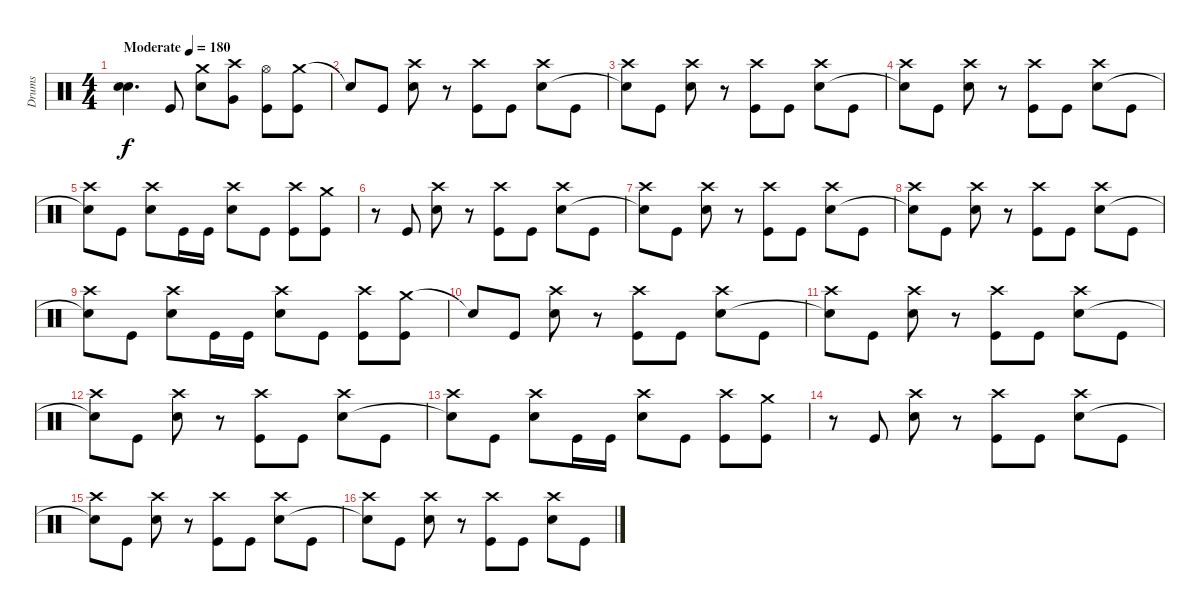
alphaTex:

\track ("Drums" "Drums") {instrument percussion}
\staff {score}
\articulation defaults
\ts (4 4)
\tempo (180 "Moderate")
\clef neutral
\ks c
("Snare (hit) 2" "Electric Snare (hit)").4{d dy f} "Kick (hit)".8 ("Crash medium (hit)" "Electric Snare (hit)").8 ("Crash high (hit)" "Very Low Tom (hit)").8 ("Hi-Hat (open)" "Kick (hit)").8 ("Crash medium (hit)" "Kick (hit)").8 |
"Snare (hit)"{t}.8 "Kick (hit)".8 ("Crash high (hit)" "Electric Snare (hit)").8 r.8 ("Crash high (hit)" "Kick (hit)").8 "Kick (hit)".8 ("Crash high (hit)" "Electric Snare (hit)").8 "Kick (hit)".8 |
("Crash high (hit)" "Snare (hit)"{t}).8 "Kick (hit)".8 ("Crash high (hit)" "Electric Snare (hit)").8 r.8 ("Crash high (hit)" "Kick (hit)").8 "Kick (hit)".8 ("Crash high (hit)" "Electric Snare (hit)").8 "Kick (hit)".8 |
("Crash high (hit)" "Snare (hit)"{t}).8 "Kick (hit)".8 ("Crash high (hit)" "Electric Snare (hit)").8 r.8 ("Crash high (hit)" "Kick (hit)").8 "Kick (hit)".8 ("Crash high (hit)" "Electric Snare (hit)").8 "Kick (hit)".8 |
("Crash high (hit)" "Snare (hit)"{t}).8 "Kick (hit)".8 ("Crash high (hit)" "Electric Snare (hit)").8 "Kick (hit)".16 "Kick (hit)".16 ("Crash high (hit)" "Electric Snare (hit)").8 "Kick (hit)".8 ("Crash high (hit)" "Kick (hit)").8 ("Crash medium (hit)" "Kick (hit)").8 |
r.8 "Kick (hit)".8 ("Crash high (hit)" "Electric Snare (hit)").8 r.8 ("Crash high (hit)" "Kick (hit)").8 "Kick (hit)".8 ("Crash high (hit)" "Electric Snare (hit)").8 "Kick (hit)".8 |
("Crash high (hit)" "Snare (hit)"{t}).8 "Kick (hit)".8 ("Crash high (hit)" "Electric Snare (hit)").8 r.8 ("Crash high (hit)" "Kick (hit)").8 "Kick (hit)".8 ("Crash high (hit)" "Electric Snare (hit)").8 "Kick (hit)".8 |
("Crash high (hit)" "Snare (hit)"{t}).8 "Kick (hit)".8 ("Crash high (hit)" "Electric Snare (hit)").8 r.8 ("Crash high (hit)" "Kick (hit)").8 "Kick (hit)".8 ("Crash high (hit)" "Electric Snare (hit)").8 "Kick (hit)".8 |
("Crash high (hit)" "Snare (hit)"{t}).8 "Kick (hit)".8 ("Crash high (hit)" "Electric Snare (hit)").8 "Kick (hit)".16 "Kick (hit)".16 ("Crash high (hit)" "Electric Snare (hit)").8 "Kick (hit)".8 ("Crash high (hit)" "Kick (hit)").8 ("Crash medium (hit)" "Kick (hit)").8 |
"Snare (hit)"{t}.8 "Kick (hit)".8 ("Crash high (hit)" "Electric Snare (hit)").8 r.8 ("Crash high (hit)" "Kick (hit)").8 "Kick (hit)".8 ("Crash high (hit)" "Electric Snare (hit)").8 "Kick (hit)".8 |
("Crash high (hit)" "Snare (hit)"{t}).8 "Kick (hit)".8 ("Crash high (hit)" "Electric Snare (hit)").8 r.8 ("Crash high (hit)" "Kick (hit)").8 "Kick (hit)".8 ("Crash high (hit)" "Electric Snare (hit)").8 "Kick (hit)".8 |
("Crash high (hit)" "Snare (hit)"{t}).8 "Kick (hit)".8 ("Crash high (hit)" "Electric Snare (hit)").8 r.8 ("Crash high (hit)" "Kick (hit)").8 "Kick (hit)".8 ("Crash high (hit)" "Electric Snare (hit)").8 "Kick (hit)".8 |
("Crash high (hit)" "Snare (hit)"{t}).8 "Kick (hit)".8 ("Crash high (hit)" "Electric Snare (hit)").8 "Kick (hit)".16 "Kick (hit)".16 ("Crash high (hit)" "Electric Snare (hit)").8 "Kick (hit)".8 ("Crash high (hit)" "Kick (hit)").8 ("Crash medium (hit)" "Kick (hit)").8 |
r.8 "Kick (hit)".8 ("Crash high (hit)" "Electric Snare (hit)").8 r.8 ("Crash high (hit)" "Kick (hit)").8 "Kick (hit)".8 ("Crash high (hit)" "Electric Snare (hit)").8 "Kick (hit)".8 |
("Crash high (hit)" "Snare (hit)"{t}).8 "Kick (hit)".8 ("Crash high (hit)" "Electric Snare (hit)").8 r.8 ("Crash high (hit)" "Kick (hit)").8 "Kick (hit)".8 ("Crash high (hit)" "Electric Snare (hit)").8 "Kick (hit)".8 |
("Crash high (hit)" "Snare (hit)"{t}).8 "Kick (hit)".8 ("Crash high (hit)" "Electric Snare (hit)").8 r.8 ("Crash high (hit)" "Kick (hit)").8 "Kick (hit)".8 ("Crash high (hit)" "Electric Snare (hit)").8 "Kick (hit)".8
